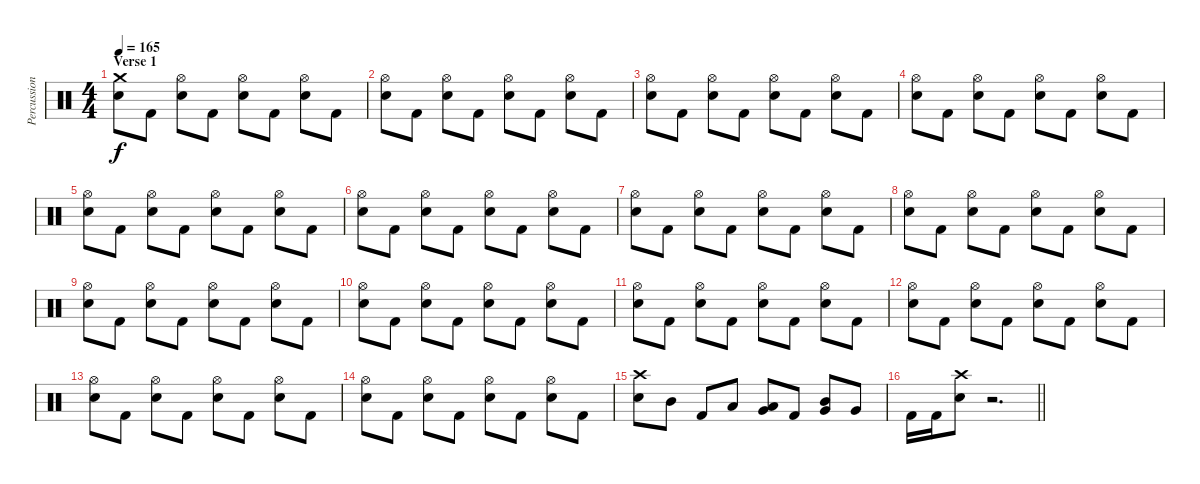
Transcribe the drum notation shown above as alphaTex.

\track ("Percussions" "Percussion") {instrument percussion}
\staff {score}
\articulation defaults
\ts (4 4)
\section ("" "Verse 1")
\tempo 165
\clef neutral
\ks c
("Crash medium (hit)" "Electric Snare (hit)").8{dy f} "Kick (hit) 2".8 ("Hi-Hat (open)" "Electric Snare (hit)").8 "Kick (hit) 2".8 ("Hi-Hat (open)" "Electric Snare (hit)").8 "Kick (hit) 2".8 ("Hi-Hat (open)" "Electric Snare (hit)").8 "Kick (hit) 2".8 |
("Hi-Hat (open)" "Electric Snare (hit)").8 "Kick (hit) 2".8 ("Hi-Hat (open)" "Electric Snare (hit)").8 "Kick (hit) 2".8 ("Hi-Hat (open)" "Electric Snare (hit)").8 "Kick (hit) 2".8 ("Hi-Hat (open)" "Electric Snare (hit)").8 "Kick (hit) 2".8 |
("Hi-Hat (open)" "Electric Snare (hit)").8 "Kick (hit) 2".8 ("Hi-Hat (open)" "Electric Snare (hit)").8 "Kick (hit) 2".8 ("Hi-Hat (open)" "Electric Snare (hit)").8 "Kick (hit) 2".8 ("Hi-Hat (open)" "Electric Snare (hit)").8 "Kick (hit) 2".8 |
("Hi-Hat (open)" "Electric Snare (hit)").8 "Kick (hit) 2".8 ("Hi-Hat (open)" "Electric Snare (hit)").8 "Kick (hit) 2".8 ("Hi-Hat (open)" "Electric Snare (hit)").8 "Kick (hit) 2".8 ("Hi-Hat (open)" "Electric Snare (hit)").8 "Kick (hit) 2".8 |
("Hi-Hat (open)" "Electric Snare (hit)").8 "Kick (hit) 2".8 ("Hi-Hat (open)" "Electric Snare (hit)").8 "Kick (hit) 2".8 ("Hi-Hat (open)" "Electric Snare (hit)").8 "Kick (hit) 2".8 ("Hi-Hat (open)" "Electric Snare (hit)").8 "Kick (hit) 2".8 |
("Hi-Hat (open)" "Electric Snare (hit)").8 "Kick (hit) 2".8 ("Hi-Hat (open)" "Electric Snare (hit)").8 "Kick (hit) 2".8 ("Hi-Hat (open)" "Electric Snare (hit)").8 "Kick (hit) 2".8 ("Hi-Hat (open)" "Electric Snare (hit)").8 "Kick (hit) 2".8 |
("Hi-Hat (open)" "Electric Snare (hit)").8 "Kick (hit) 2".8 ("Hi-Hat (open)" "Electric Snare (hit)").8 "Kick (hit) 2".8 ("Hi-Hat (open)" "Electric Snare (hit)").8 "Kick (hit) 2".8 ("Hi-Hat (open)" "Electric Snare (hit)").8 "Kick (hit) 2".8 |
("Hi-Hat (open)" "Electric Snare (hit)").8 "Kick (hit) 2".8 ("Hi-Hat (open)" "Electric Snare (hit)").8 "Kick (hit) 2".8 ("Hi-Hat (open)" "Electric Snare (hit)").8 "Kick (hit) 2".8 ("Hi-Hat (open)" "Electric Snare (hit)").8 "Kick (hit) 2".8 |
("Hi-Hat (open)" "Electric Snare (hit)").8 "Kick (hit) 2".8 ("Hi-Hat (open)" "Electric Snare (hit)").8 "Kick (hit) 2".8 ("Hi-Hat (open)" "Electric Snare (hit)").8 "Kick (hit) 2".8 ("Hi-Hat (open)" "Electric Snare (hit)").8 "Kick (hit) 2".8 |
("Hi-Hat (open)" "Electric Snare (hit)").8 "Kick (hit) 2".8 ("Hi-Hat (open)" "Electric Snare (hit)").8 "Kick (hit) 2".8 ("Hi-Hat (open)" "Electric Snare (hit)").8 "Kick (hit) 2".8 ("Hi-Hat (open)" "Electric Snare (hit)").8 "Kick (hit) 2".8 |
("Hi-Hat (open)" "Electric Snare (hit)").8 "Kick (hit) 2".8 ("Hi-Hat (open)" "Electric Snare (hit)").8 "Kick (hit) 2".8 ("Hi-Hat (open)" "Electric Snare (hit)").8 "Kick (hit) 2".8 ("Hi-Hat (open)" "Electric Snare (hit)").8 "Kick (hit) 2".8 |
("Hi-Hat (open)" "Electric Snare (hit)").8 "Kick (hit) 2".8 ("Hi-Hat (open)" "Electric Snare (hit)").8 "Kick (hit) 2".8 ("Hi-Hat (open)" "Electric Snare (hit)").8 "Kick (hit) 2".8 ("Hi-Hat (open)" "Electric Snare (hit)").8 "Kick (hit) 2".8 |
("Hi-Hat (open)" "Electric Snare (hit)").8 "Kick (hit) 2".8 ("Hi-Hat (open)" "Electric Snare (hit)").8 "Kick (hit) 2".8 ("Hi-Hat (open)" "Electric Snare (hit)").8 "Kick (hit) 2".8 ("Hi-Hat (open)" "Electric Snare (hit)").8 "Kick (hit) 2".8 |
("Hi-Hat (open)" "Electric Snare (hit)").8 "Kick (hit) 2".8 ("Hi-Hat (open)" "Electric Snare (hit)").8 "Kick (hit) 2".8 ("Hi-Hat (open)" "Electric Snare (hit)").8 "Kick (hit) 2".8 ("Hi-Hat (open)" "Electric Snare (hit)").8 "Kick (hit) 2".8 |
("Crash high (hit)" "Electric Snare (hit)").8 "Mid Tom (hit)".8 "Kick (hit) 2".8 "Low Tom (hit)".8 ("Low Tom (hit)" "Very Low Tom (hit)").8 "Kick (hit) 2".8 ("Mid Tom (hit)" "Very Low Tom (hit)").8 "Very Low Tom (hit)".8 |
\barLineRight lightlight "Kick (hit) 2".16 "Kick (hit) 2".16
("Crash high (hit)" "Electric Snare (hit)").8 r.2{d}
